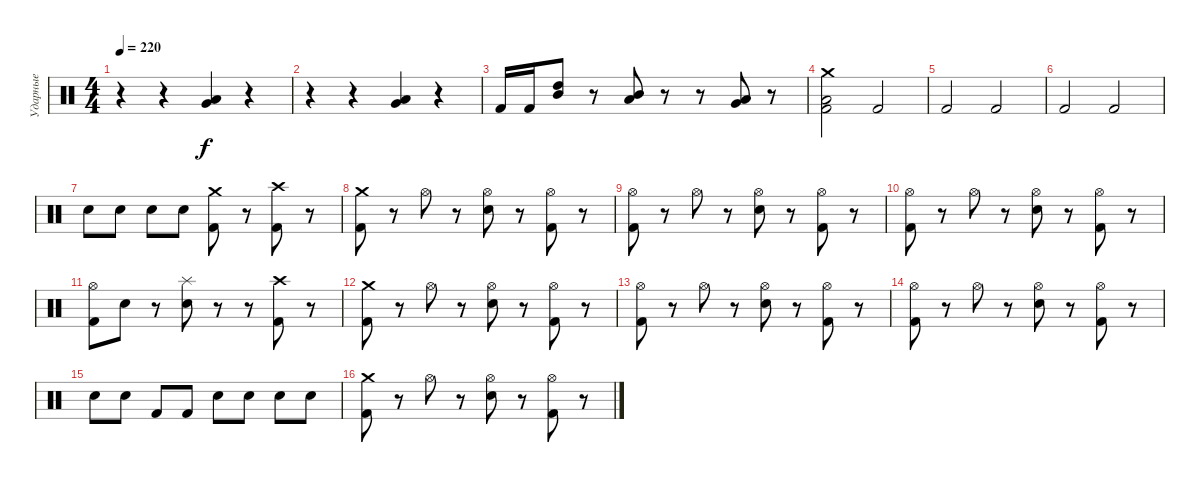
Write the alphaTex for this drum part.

\track ("Ударные" "Ударные") {instrument percussion}
\staff {score}
\articulation defaults
\ts (4 4)
\tempo 220
\clef neutral
\ks c
r.4{dy f} r.4 ("Low Floor Tom (hit)" "Very Low Tom (hit)").4 r.4 |
r.4 r.4 ("Low Floor Tom (hit)" "Very Low Tom (hit)").4 r.4 |
"Kick (hit) 2".16 "Kick (hit) 2".16 ("Mid Tom (hit)" "High Tom (hit)").8 r.8 ("Low Tom (hit)" "Mid Tom (hit)").8 r.8 r.8 ("Low Tom (hit)" "Very Low Tom (hit)").8 r.8 |
("Kick (hit) 2" "Low Floor Tom (hit)" "Crash medium (hit)").2 "Kick (hit) 2".2 |
"Kick (hit) 2".2 "Kick (hit) 2".2 |
"Kick (hit) 2".2 "Kick (hit) 2".2 |
"Electric Snare (hit)".8 "Electric Snare (hit)".8 "Electric Snare (hit)".8 "Electric Snare (hit)".8 ("Kick (hit) 2" "Crash medium (hit)").8 r.8 ("Kick (hit) 2" "Crash high (hit)").8 r.8 |
("Kick (hit) 2" "Crash medium (hit)").8 r.8 "Hi-Hat (open)".8 r.8 ("Electric Snare (hit)" "Hi-Hat (open)").8 r.8 ("Kick (hit) 2" "Hi-Hat (open)").8 r.8 |
("Kick (hit) 2" "Hi-Hat (open)").8 r.8 "Hi-Hat (open)".8 r.8 ("Electric Snare (hit)" "Hi-Hat (open)").8 r.8 ("Kick (hit) 2" "Hi-Hat (open)").8 r.8 |
("Kick (hit) 2" "Hi-Hat (open)").8 r.8 "Hi-Hat (open)".8 r.8 ("Electric Snare (hit)" "Hi-Hat (open)").8 r.8 ("Kick (hit) 2" "Hi-Hat (open)").8 r.8 |
("Kick (hit) 2" "Hi-Hat (open)").8 "Electric Snare (hit)".8 r.8 ("Electric Snare (hit)" "Splash (hit)").8 r.8 r.8 ("Kick (hit) 2" "Crash high (hit)").8 r.8 |
("Kick (hit) 2" "Crash medium (hit)").8 r.8 "Hi-Hat (open)".8 r.8 ("Electric Snare (hit)" "Hi-Hat (open)").8 r.8 ("Kick (hit) 2" "Hi-Hat (open)").8 r.8 |
("Kick (hit) 2" "Hi-Hat (open)").8 r.8 "Hi-Hat (open)".8 r.8 ("Electric Snare (hit)" "Hi-Hat (open)").8 r.8 ("Kick (hit) 2" "Hi-Hat (open)").8 r.8 |
("Kick (hit) 2" "Hi-Hat (open)").8 r.8 "Hi-Hat (open)".8 r.8 ("Electric Snare (hit)" "Hi-Hat (open)").8 r.8 ("Kick (hit) 2" "Hi-Hat (open)").8 r.8 |
"Electric Snare (hit)".8 "Electric Snare (hit)".8 "Kick (hit) 2".8 "Kick (hit) 2".8 "Electric Snare (hit)".8 "Electric Snare (hit)".8 "Electric Snare (hit)".8 "Electric Snare (hit)".8 |
("Kick (hit) 2" "Crash medium (hit)").8 r.8 "Hi-Hat (open)".8 r.8 ("Electric Snare (hit)" "Hi-Hat (open)").8 r.8 ("Kick (hit) 2" "Hi-Hat (open)").8 r.8
